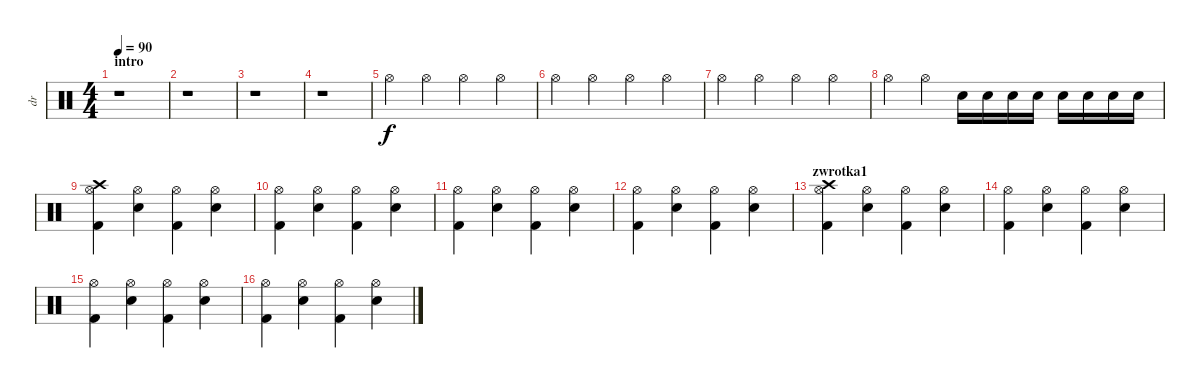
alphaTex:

\track ("dr" "dr") {instrument percussion}
\staff {score}
\articulation defaults
\ts (4 4)
\section ("" "intro")
\tempo 90
\clef neutral
\ks c
r.1{dy f} |
r.1 |
r.1 |
r.1 |
"Hi-Hat (open)".4 "Hi-Hat (open)".4 "Hi-Hat (open)".4 "Hi-Hat (open)".4 |
"Hi-Hat (open)".4 "Hi-Hat (open)".4 "Hi-Hat (open)".4 "Hi-Hat (open)".4 |
"Hi-Hat (open)".4 "Hi-Hat (open)".4 "Hi-Hat (open)".4 "Hi-Hat (open)".4 |
"Hi-Hat (open)".4 "Hi-Hat (open)".4 "Electric Snare (hit)".16 "Electric Snare (hit)".16 "Electric Snare (hit)".16 "Electric Snare (hit)".16 "Electric Snare (hit)".16 "Electric Snare (hit)".16 "Electric Snare (hit)".16 "Electric Snare (hit)".16 |
("Hi-Hat (open)" "Kick (hit) 2" "Crash high (hit)").4 ("Hi-Hat (open)" "Electric Snare (hit)").4 ("Hi-Hat (open)" "Kick (hit) 2").4 ("Hi-Hat (open)" "Electric Snare (hit)").4 |
("Hi-Hat (open)" "Kick (hit) 2").4 ("Hi-Hat (open)" "Electric Snare (hit)").4 ("Hi-Hat (open)" "Kick (hit) 2").4 ("Hi-Hat (open)" "Electric Snare (hit)").4 |
("Hi-Hat (open)" "Kick (hit) 2").4 ("Hi-Hat (open)" "Electric Snare (hit)").4 ("Hi-Hat (open)" "Kick (hit) 2").4 ("Hi-Hat (open)" "Electric Snare (hit)").4 |
("Hi-Hat (open)" "Kick (hit) 2").4 ("Hi-Hat (open)" "Electric Snare (hit)").4 ("Hi-Hat (open)" "Kick (hit) 2").4 ("Hi-Hat (open)" "Electric Snare (hit)").4 |
\section ("" "zwrotka1")
("Hi-Hat (open)" "Kick (hit) 2" "Crash high (hit)").4 ("Hi-Hat (open)" "Electric Snare (hit)").4 ("Hi-Hat (open)" "Kick (hit) 2").4 ("Hi-Hat (open)" "Electric Snare (hit)").4 |
("Hi-Hat (open)" "Kick (hit) 2").4 ("Hi-Hat (open)" "Electric Snare (hit)").4 ("Hi-Hat (open)" "Kick (hit) 2").4 ("Hi-Hat (open)" "Electric Snare (hit)").4 |
("Hi-Hat (open)" "Kick (hit) 2").4 ("Hi-Hat (open)" "Electric Snare (hit)").4 ("Hi-Hat (open)" "Kick (hit) 2").4 ("Hi-Hat (open)" "Electric Snare (hit)").4 |
("Hi-Hat (open)" "Kick (hit) 2").4 ("Hi-Hat (open)" "Electric Snare (hit)").4 ("Hi-Hat (open)" "Kick (hit) 2").4 ("Hi-Hat (open)" "Electric Snare (hit)").4
